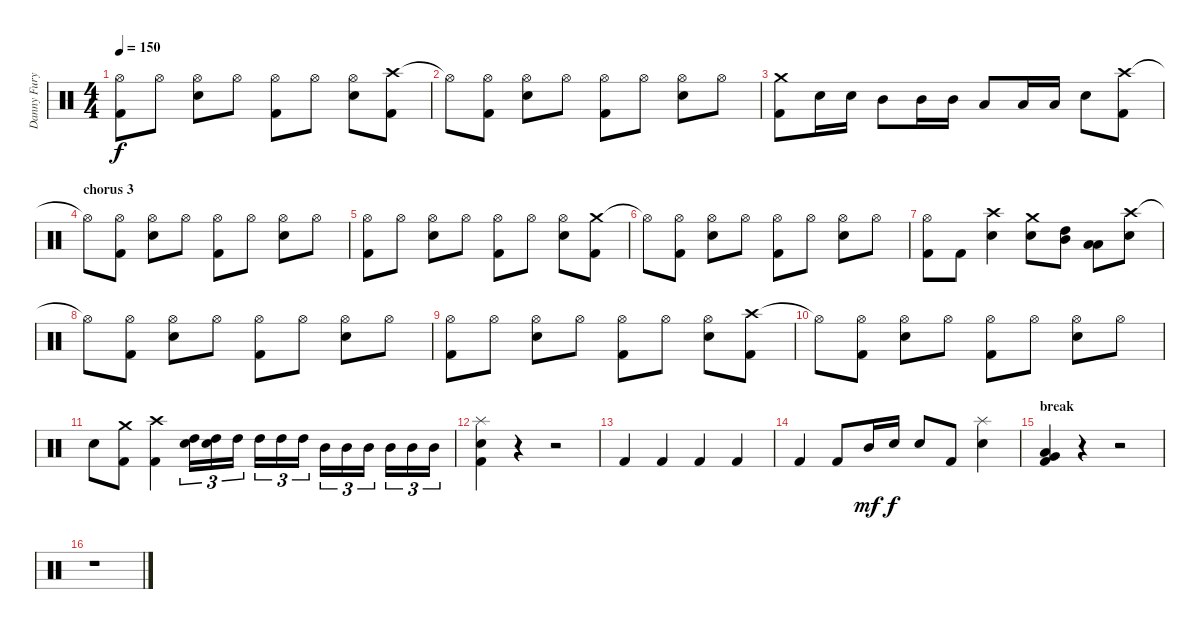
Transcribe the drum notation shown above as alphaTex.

\track ("Danny Fury" "Danny Fury") {instrument percussion}
\staff {score}
\articulation defaults
\ts (4 4)
\tempo 150
\clef neutral
\ks c
("Hi-Hat (open)" "Kick (hit) 2").8{dy f} "Hi-Hat (open)".8 ("Hi-Hat (open)" "Electric Snare (hit)").8 "Hi-Hat (open)".8 ("Hi-Hat (open)" "Kick (hit) 2").8 "Hi-Hat (open)".8 ("Hi-Hat (open)" "Electric Snare (hit)").8 ("Crash high (hit)" "Kick (hit) 2").8 |
"Hi-Hat (open)"{t}.8 ("Hi-Hat (open)" "Kick (hit) 2").8 ("Hi-Hat (open)" "Electric Snare (hit)").8 "Hi-Hat (open)".8 ("Hi-Hat (open)" "Kick (hit) 2").8 "Hi-Hat (open)".8 ("Hi-Hat (open)" "Electric Snare (hit)").8 "Hi-Hat (open)".8 |
("Crash medium (hit)" "Kick (hit) 2").8 "Electric Snare (hit)".16 "Electric Snare (hit)".16 "Mid Tom (hit)".8 "Mid Tom (hit)".16 "Mid Tom (hit)".16 "Low Tom (hit)".8 "Low Tom (hit)".16 "Low Tom (hit)".16 "Electric Snare (hit)".8 ("Crash high (hit)" "Kick (hit) 2").8 |
\section ("" "chorus 3")
"Hi-Hat (open)"{t}.8 ("Hi-Hat (open)" "Kick (hit) 2").8 ("Hi-Hat (open)" "Electric Snare (hit)").8 "Hi-Hat (open)".8 ("Hi-Hat (open)" "Kick (hit) 2").8 "Hi-Hat (open)".8 ("Hi-Hat (open)" "Electric Snare (hit)").8 "Hi-Hat (open)".8 |
("Hi-Hat (open)" "Kick (hit) 2").8 "Hi-Hat (open)".8 ("Hi-Hat (open)" "Electric Snare (hit)").8 "Hi-Hat (open)".8 ("Hi-Hat (open)" "Kick (hit) 2").8 "Hi-Hat (open)".8 ("Hi-Hat (open)" "Electric Snare (hit)").8 ("Crash medium (hit)" "Kick (hit) 2").8 |
"Hi-Hat (open)"{t}.8 ("Hi-Hat (open)" "Kick (hit) 2").8 ("Hi-Hat (open)" "Electric Snare (hit)").8 "Hi-Hat (open)".8 ("Hi-Hat (open)" "Kick (hit) 2").8 "Hi-Hat (open)".8 ("Hi-Hat (open)" "Electric Snare (hit)").8 "Hi-Hat (open)".8 |
("Hi-Hat (open)" "Kick (hit) 2").8 "Kick (hit) 2".8 ("Crash high (hit)" "Electric Snare (hit)").4 ("Crash medium (hit)" "Electric Snare (hit)").8 ("Mid Tom (hit)" "High Tom (hit)").8 ("Low Tom (hit)" "Low Floor Tom (hit)").8 ("Crash high (hit)" "Electric Snare (hit)").8 |
"Hi-Hat (open)"{t}.8 ("Hi-Hat (open)" "Kick (hit) 2").8 ("Hi-Hat (open)" "Electric Snare (hit)").8 "Hi-Hat (open)".8 ("Hi-Hat (open)" "Kick (hit) 2").8 "Hi-Hat (open)".8 ("Hi-Hat (open)" "Electric Snare (hit)").8 "Hi-Hat (open)".8 |
("Hi-Hat (open)" "Kick (hit) 2").8 "Hi-Hat (open)".8 ("Hi-Hat (open)" "Electric Snare (hit)").8 "Hi-Hat (open)".8 ("Hi-Hat (open)" "Kick (hit) 2").8 "Hi-Hat (open)".8 ("Hi-Hat (open)" "Electric Snare (hit)").8 ("Crash high (hit)" "Kick (hit) 2").8 |
"Hi-Hat (open)"{t}.8 ("Hi-Hat (open)" "Kick (hit) 2").8 ("Hi-Hat (open)" "Electric Snare (hit)").8 "Hi-Hat (open)".8 ("Hi-Hat (open)" "Kick (hit) 2").8 "Hi-Hat (open)".8 ("Hi-Hat (open)" "Electric Snare (hit)").8 "Hi-Hat (open)".8 |
"Electric Snare (hit)".8 ("Crash medium (hit)" "Kick (hit) 2").8 ("Crash high (hit)" "Kick (hit) 2").4 ("High Tom (hit)" "Electric Snare (hit)").16{tu (3 2)} ("High Tom (hit)" "Electric Snare (hit)").16{tu (3 2)} "High Tom (hit)".16{tu (3 2)} "High Tom (hit)".16{tu (3 2)} "High Tom (hit)".16{tu (3 2)} "High Tom (hit)".16{tu (3 2)} "Mid Tom (hit)".16{tu (3 2)} "Mid Tom (hit)".16{tu (3 2)} "Mid Tom (hit)".16{tu (3 2)} "Mid Tom (hit)".16{tu (3 2)} "Mid Tom (hit)".16{tu (3 2)} "Mid Tom (hit)".16{tu (3 2)} |
("Splash (hit)" "Electric Snare (hit)" "Kick (hit) 2").4 r.4 r.2 |
"Kick (hit) 2".4 "Kick (hit) 2".4 "Kick (hit) 2".4 "Kick (hit) 2".4 |
"Kick (hit) 2".4 "Kick (hit) 2".8 "Mid Tom (hit)".16{dy mf} "Electric Snare (hit)".16{dy f} "Electric Snare (hit)".8 "Kick (hit) 2".8 ("Splash (hit)" "Electric Snare (hit)").4 |
\section ("" "break")
("Low Floor Tom (hit)" "Very Low Tom (hit)" "Kick (hit) 2").4 r.4 r.2 |
r.1
